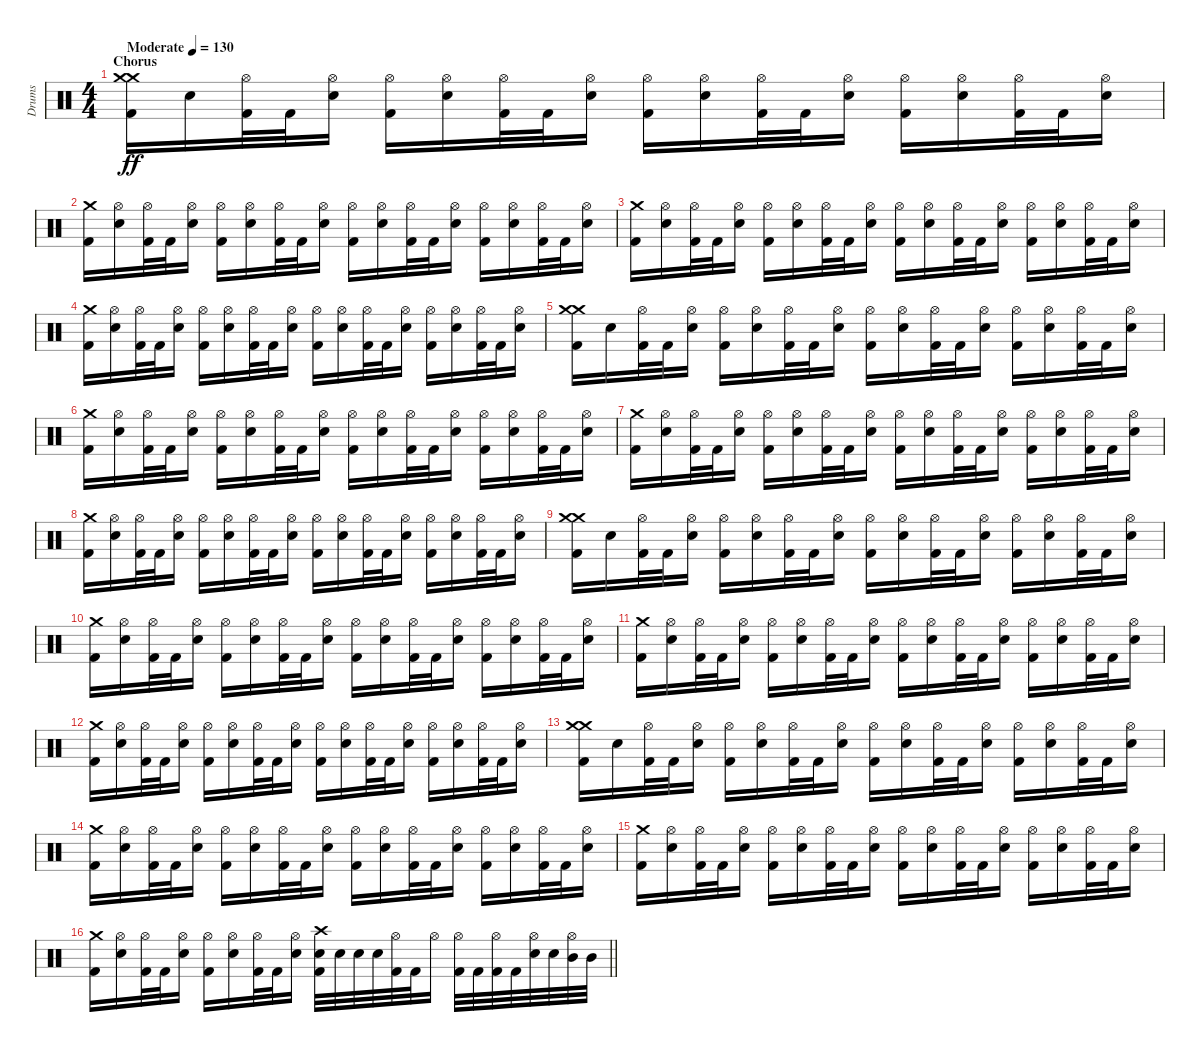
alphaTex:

\track ("Drums" "Drums") {instrument percussion}
\staff {score}
\articulation defaults
\ts (4 4)
\section ("" "Chorus")
\tempo (130 "Moderate")
\clef neutral
\ks c
("Crash medium (hit)" "Crash medium (hit)" "Kick (hit) 2").16{dy ff} "Snare (hit) 2".16 ("Hi-Hat (open)" "Kick (hit) 2").32 "Kick (hit) 2".32 ("Hi-Hat (open)" "Snare (hit) 2").16 ("Hi-Hat (open)" "Kick (hit) 2").16 ("Hi-Hat (open)" "Snare (hit) 2").16 ("Hi-Hat (open)" "Kick (hit) 2").32 "Kick (hit) 2".32 ("Hi-Hat (open)" "Snare (hit) 2").16 ("Hi-Hat (open)" "Kick (hit) 2").16 ("Hi-Hat (open)" "Snare (hit) 2").16 ("Hi-Hat (open)" "Kick (hit) 2").32 "Kick (hit) 2".32 ("Hi-Hat (open)" "Snare (hit) 2").16 ("Hi-Hat (open)" "Kick (hit) 2").16 ("Hi-Hat (open)" "Snare (hit) 2").16 ("Hi-Hat (open)" "Kick (hit) 2").32 "Kick (hit) 2".32 ("Hi-Hat (open)" "Snare (hit) 2").16 |
("Crash medium (hit)" "Kick (hit) 2").16 ("Hi-Hat (open)" "Snare (hit) 2").16 ("Hi-Hat (open)" "Kick (hit) 2").32 "Kick (hit) 2".32 ("Hi-Hat (open)" "Snare (hit) 2").16 ("Hi-Hat (open)" "Kick (hit) 2").16 ("Hi-Hat (open)" "Snare (hit) 2").16 ("Hi-Hat (open)" "Kick (hit) 2").32 "Kick (hit) 2".32 ("Hi-Hat (open)" "Snare (hit) 2").16 ("Hi-Hat (open)" "Kick (hit) 2").16 ("Hi-Hat (open)" "Snare (hit) 2").16 ("Hi-Hat (open)" "Kick (hit) 2").32 "Kick (hit) 2".32 ("Hi-Hat (open)" "Snare (hit) 2").16 ("Hi-Hat (open)" "Kick (hit) 2").16 ("Hi-Hat (open)" "Snare (hit) 2").16 ("Hi-Hat (open)" "Kick (hit) 2").32 "Kick (hit) 2".32 ("Hi-Hat (open)" "Snare (hit) 2").16 |
("Crash medium (hit)" "Kick (hit) 2").16 ("Hi-Hat (open)" "Snare (hit) 2").16 ("Hi-Hat (open)" "Kick (hit) 2").32 "Kick (hit) 2".32 ("Hi-Hat (open)" "Snare (hit) 2").16 ("Hi-Hat (open)" "Kick (hit) 2").16 ("Hi-Hat (open)" "Snare (hit) 2").16 ("Hi-Hat (open)" "Kick (hit) 2").32 "Kick (hit) 2".32 ("Hi-Hat (open)" "Snare (hit) 2").16 ("Hi-Hat (open)" "Kick (hit) 2").16 ("Hi-Hat (open)" "Snare (hit) 2").16 ("Hi-Hat (open)" "Kick (hit) 2").32 "Kick (hit) 2".32 ("Hi-Hat (open)" "Snare (hit) 2").16 ("Hi-Hat (open)" "Kick (hit) 2").16 ("Hi-Hat (open)" "Snare (hit) 2").16 ("Hi-Hat (open)" "Kick (hit) 2").32 "Kick (hit) 2".32 ("Hi-Hat (open)" "Snare (hit) 2").16 |
("Crash medium (hit)" "Kick (hit) 2").16 ("Hi-Hat (open)" "Snare (hit) 2").16 ("Hi-Hat (open)" "Kick (hit) 2").32 "Kick (hit) 2".32 ("Hi-Hat (open)" "Snare (hit) 2").16 ("Hi-Hat (open)" "Kick (hit) 2").16 ("Hi-Hat (open)" "Snare (hit) 2").16 ("Hi-Hat (open)" "Kick (hit) 2").32 "Kick (hit) 2".32 ("Hi-Hat (open)" "Snare (hit) 2").16 ("Hi-Hat (open)" "Kick (hit) 2").16 ("Hi-Hat (open)" "Snare (hit) 2").16 ("Hi-Hat (open)" "Kick (hit) 2").32 "Kick (hit) 2".32 ("Hi-Hat (open)" "Snare (hit) 2").16 ("Hi-Hat (open)" "Kick (hit) 2").16 ("Hi-Hat (open)" "Snare (hit) 2").16 ("Hi-Hat (open)" "Kick (hit) 2").32 "Kick (hit) 2".32 ("Hi-Hat (open)" "Snare (hit) 2").16 |
("Crash medium (hit)" "Crash medium (hit)" "Kick (hit) 2").16 "Snare (hit) 2".16 ("Hi-Hat (open)" "Kick (hit) 2").32 "Kick (hit) 2".32 ("Hi-Hat (open)" "Snare (hit) 2").16 ("Hi-Hat (open)" "Kick (hit) 2").16 ("Hi-Hat (open)" "Snare (hit) 2").16 ("Hi-Hat (open)" "Kick (hit) 2").32 "Kick (hit) 2".32 ("Hi-Hat (open)" "Snare (hit) 2").16 ("Hi-Hat (open)" "Kick (hit) 2").16 ("Hi-Hat (open)" "Snare (hit) 2").16 ("Hi-Hat (open)" "Kick (hit) 2").32 "Kick (hit) 2".32 ("Hi-Hat (open)" "Snare (hit) 2").16 ("Hi-Hat (open)" "Kick (hit) 2").16 ("Hi-Hat (open)" "Snare (hit) 2").16 ("Hi-Hat (open)" "Kick (hit) 2").32 "Kick (hit) 2".32 ("Hi-Hat (open)" "Snare (hit) 2").16 |
("Crash medium (hit)" "Kick (hit) 2").16 ("Hi-Hat (open)" "Snare (hit) 2").16 ("Hi-Hat (open)" "Kick (hit) 2").32 "Kick (hit) 2".32 ("Hi-Hat (open)" "Snare (hit) 2").16 ("Hi-Hat (open)" "Kick (hit) 2").16 ("Hi-Hat (open)" "Snare (hit) 2").16 ("Hi-Hat (open)" "Kick (hit) 2").32 "Kick (hit) 2".32 ("Hi-Hat (open)" "Snare (hit) 2").16 ("Hi-Hat (open)" "Kick (hit) 2").16 ("Hi-Hat (open)" "Snare (hit) 2").16 ("Hi-Hat (open)" "Kick (hit) 2").32 "Kick (hit) 2".32 ("Hi-Hat (open)" "Snare (hit) 2").16 ("Hi-Hat (open)" "Kick (hit) 2").16 ("Hi-Hat (open)" "Snare (hit) 2").16 ("Hi-Hat (open)" "Kick (hit) 2").32 "Kick (hit) 2".32 ("Hi-Hat (open)" "Snare (hit) 2").16 |
("Crash medium (hit)" "Kick (hit) 2").16 ("Hi-Hat (open)" "Snare (hit) 2").16 ("Hi-Hat (open)" "Kick (hit) 2").32 "Kick (hit) 2".32 ("Hi-Hat (open)" "Snare (hit) 2").16 ("Hi-Hat (open)" "Kick (hit) 2").16 ("Hi-Hat (open)" "Snare (hit) 2").16 ("Hi-Hat (open)" "Kick (hit) 2").32 "Kick (hit) 2".32 ("Hi-Hat (open)" "Snare (hit) 2").16 ("Hi-Hat (open)" "Kick (hit) 2").16 ("Hi-Hat (open)" "Snare (hit) 2").16 ("Hi-Hat (open)" "Kick (hit) 2").32 "Kick (hit) 2".32 ("Hi-Hat (open)" "Snare (hit) 2").16 ("Hi-Hat (open)" "Kick (hit) 2").16 ("Hi-Hat (open)" "Snare (hit) 2").16 ("Hi-Hat (open)" "Kick (hit) 2").32 "Kick (hit) 2".32 ("Hi-Hat (open)" "Snare (hit) 2").16 |
("Crash medium (hit)" "Kick (hit) 2").16 ("Hi-Hat (open)" "Snare (hit) 2").16 ("Hi-Hat (open)" "Kick (hit) 2").32 "Kick (hit) 2".32 ("Hi-Hat (open)" "Snare (hit) 2").16 ("Hi-Hat (open)" "Kick (hit) 2").16 ("Hi-Hat (open)" "Snare (hit) 2").16 ("Hi-Hat (open)" "Kick (hit) 2").32 "Kick (hit) 2".32 ("Hi-Hat (open)" "Snare (hit) 2").16 ("Hi-Hat (open)" "Kick (hit) 2").16 ("Hi-Hat (open)" "Snare (hit) 2").16 ("Hi-Hat (open)" "Kick (hit) 2").32 "Kick (hit) 2".32 ("Hi-Hat (open)" "Snare (hit) 2").16 ("Hi-Hat (open)" "Kick (hit) 2").16 ("Hi-Hat (open)" "Snare (hit) 2").16 ("Hi-Hat (open)" "Kick (hit) 2").32 "Kick (hit) 2".32 ("Hi-Hat (open)" "Snare (hit) 2").16 |
("Crash medium (hit)" "Crash medium (hit)" "Kick (hit) 2").16 "Snare (hit) 2".16 ("Hi-Hat (open)" "Kick (hit) 2").32 "Kick (hit) 2".32 ("Hi-Hat (open)" "Snare (hit) 2").16 ("Hi-Hat (open)" "Kick (hit) 2").16 ("Hi-Hat (open)" "Snare (hit) 2").16 ("Hi-Hat (open)" "Kick (hit) 2").32 "Kick (hit) 2".32 ("Hi-Hat (open)" "Snare (hit) 2").16 ("Hi-Hat (open)" "Kick (hit) 2").16 ("Hi-Hat (open)" "Snare (hit) 2").16 ("Hi-Hat (open)" "Kick (hit) 2").32 "Kick (hit) 2".32 ("Hi-Hat (open)" "Snare (hit) 2").16 ("Hi-Hat (open)" "Kick (hit) 2").16 ("Hi-Hat (open)" "Snare (hit) 2").16 ("Hi-Hat (open)" "Kick (hit) 2").32 "Kick (hit) 2".32 ("Hi-Hat (open)" "Snare (hit) 2").16 |
("Crash medium (hit)" "Kick (hit) 2").16 ("Hi-Hat (open)" "Snare (hit) 2").16 ("Hi-Hat (open)" "Kick (hit) 2").32 "Kick (hit) 2".32 ("Hi-Hat (open)" "Snare (hit) 2").16 ("Hi-Hat (open)" "Kick (hit) 2").16 ("Hi-Hat (open)" "Snare (hit) 2").16 ("Hi-Hat (open)" "Kick (hit) 2").32 "Kick (hit) 2".32 ("Hi-Hat (open)" "Snare (hit) 2").16 ("Hi-Hat (open)" "Kick (hit) 2").16 ("Hi-Hat (open)" "Snare (hit) 2").16 ("Hi-Hat (open)" "Kick (hit) 2").32 "Kick (hit) 2".32 ("Hi-Hat (open)" "Snare (hit) 2").16 ("Hi-Hat (open)" "Kick (hit) 2").16 ("Hi-Hat (open)" "Snare (hit) 2").16 ("Hi-Hat (open)" "Kick (hit) 2").32 "Kick (hit) 2".32 ("Hi-Hat (open)" "Snare (hit) 2").16 |
("Crash medium (hit)" "Kick (hit) 2").16 ("Hi-Hat (open)" "Snare (hit) 2").16 ("Hi-Hat (open)" "Kick (hit) 2").32 "Kick (hit) 2".32 ("Hi-Hat (open)" "Snare (hit) 2").16 ("Hi-Hat (open)" "Kick (hit) 2").16 ("Hi-Hat (open)" "Snare (hit) 2").16 ("Hi-Hat (open)" "Kick (hit) 2").32 "Kick (hit) 2".32 ("Hi-Hat (open)" "Snare (hit) 2").16 ("Hi-Hat (open)" "Kick (hit) 2").16 ("Hi-Hat (open)" "Snare (hit) 2").16 ("Hi-Hat (open)" "Kick (hit) 2").32 "Kick (hit) 2".32 ("Hi-Hat (open)" "Snare (hit) 2").16 ("Hi-Hat (open)" "Kick (hit) 2").16 ("Hi-Hat (open)" "Snare (hit) 2").16 ("Hi-Hat (open)" "Kick (hit) 2").32 "Kick (hit) 2".32 ("Hi-Hat (open)" "Snare (hit) 2").16 |
("Crash medium (hit)" "Kick (hit) 2").16 ("Hi-Hat (open)" "Snare (hit) 2").16 ("Hi-Hat (open)" "Kick (hit) 2").32 "Kick (hit) 2".32 ("Hi-Hat (open)" "Snare (hit) 2").16 ("Hi-Hat (open)" "Kick (hit) 2").16 ("Hi-Hat (open)" "Snare (hit) 2").16 ("Hi-Hat (open)" "Kick (hit) 2").32 "Kick (hit) 2".32 ("Hi-Hat (open)" "Snare (hit) 2").16 ("Hi-Hat (open)" "Kick (hit) 2").16 ("Hi-Hat (open)" "Snare (hit) 2").16 ("Hi-Hat (open)" "Kick (hit) 2").32 "Kick (hit) 2".32 ("Hi-Hat (open)" "Snare (hit) 2").16 ("Hi-Hat (open)" "Kick (hit) 2").16 ("Hi-Hat (open)" "Snare (hit) 2").16 ("Hi-Hat (open)" "Kick (hit) 2").32 "Kick (hit) 2".32 ("Hi-Hat (open)" "Snare (hit) 2").16 |
("Crash medium (hit)" "Crash medium (hit)" "Kick (hit) 2").16 "Snare (hit) 2".16 ("Hi-Hat (open)" "Kick (hit) 2").32 "Kick (hit) 2".32 ("Hi-Hat (open)" "Snare (hit) 2").16 ("Hi-Hat (open)" "Kick (hit) 2").16 ("Hi-Hat (open)" "Snare (hit) 2").16 ("Hi-Hat (open)" "Kick (hit) 2").32 "Kick (hit) 2".32 ("Hi-Hat (open)" "Snare (hit) 2").16 ("Hi-Hat (open)" "Kick (hit) 2").16 ("Hi-Hat (open)" "Snare (hit) 2").16 ("Hi-Hat (open)" "Kick (hit) 2").32 "Kick (hit) 2".32 ("Hi-Hat (open)" "Snare (hit) 2").16 ("Hi-Hat (open)" "Kick (hit) 2").16 ("Hi-Hat (open)" "Snare (hit) 2").16 ("Hi-Hat (open)" "Kick (hit) 2").32 "Kick (hit) 2".32 ("Hi-Hat (open)" "Snare (hit) 2").16 |
("Crash medium (hit)" "Kick (hit) 2").16 ("Hi-Hat (open)" "Snare (hit) 2").16 ("Hi-Hat (open)" "Kick (hit) 2").32 "Kick (hit) 2".32 ("Hi-Hat (open)" "Snare (hit) 2").16 ("Hi-Hat (open)" "Kick (hit) 2").16 ("Hi-Hat (open)" "Snare (hit) 2").16 ("Hi-Hat (open)" "Kick (hit) 2").32 "Kick (hit) 2".32 ("Hi-Hat (open)" "Snare (hit) 2").16 ("Hi-Hat (open)" "Kick (hit) 2").16 ("Hi-Hat (open)" "Snare (hit) 2").16 ("Hi-Hat (open)" "Kick (hit) 2").32 "Kick (hit) 2".32 ("Hi-Hat (open)" "Snare (hit) 2").16 ("Hi-Hat (open)" "Kick (hit) 2").16 ("Hi-Hat (open)" "Snare (hit) 2").16 ("Hi-Hat (open)" "Kick (hit) 2").32 "Kick (hit) 2".32 ("Hi-Hat (open)" "Snare (hit) 2").16 |
("Crash medium (hit)" "Kick (hit) 2").16 ("Hi-Hat (open)" "Snare (hit) 2").16 ("Hi-Hat (open)" "Kick (hit) 2").32 "Kick (hit) 2".32 ("Hi-Hat (open)" "Snare (hit) 2").16 ("Hi-Hat (open)" "Kick (hit) 2").16 ("Hi-Hat (open)" "Snare (hit) 2").16 ("Hi-Hat (open)" "Kick (hit) 2").32 "Kick (hit) 2".32 ("Hi-Hat (open)" "Snare (hit) 2").16 ("Hi-Hat (open)" "Kick (hit) 2").16 ("Hi-Hat (open)" "Snare (hit) 2").16 ("Hi-Hat (open)" "Kick (hit) 2").32 "Kick (hit) 2".32 ("Hi-Hat (open)" "Snare (hit) 2").16 ("Hi-Hat (open)" "Kick (hit) 2").16 ("Hi-Hat (open)" "Snare (hit) 2").16 ("Hi-Hat (open)" "Kick (hit) 2").32 "Kick (hit) 2".32 ("Hi-Hat (open)" "Snare (hit) 2").16 |
\barLineRight lightlight
("Crash medium (hit)" "Kick (hit) 2").16 ("Hi-Hat (open)" "Snare (hit) 2").16 ("Hi-Hat (open)" "Kick (hit) 2").32 "Kick (hit) 2".32 ("Hi-Hat (open)" "Snare (hit) 2").16 ("Hi-Hat (open)" "Kick (hit) 2").16 ("Hi-Hat (open)" "Snare (hit) 2").16 ("Hi-Hat (open)" "Kick (hit) 2").32 "Kick (hit) 2".32 ("Hi-Hat (open)" "Snare (hit) 2").16 ("Crash high (hit)" "Kick (hit) 2" "Snare (hit) 2").32 "Snare (hit) 2".32 "Snare (hit) 2".32 "Snare (hit) 2".32 ("Hi-Hat (open)" "Kick (hit) 2").32 "Kick (hit) 2".32 "Hi-Hat (open)".16 ("Hi-Hat (open)" "Kick (hit) 2").32 "Kick (hit) 2".32 ("Hi-Hat (open)" "Kick (hit) 2").32 "Kick (hit) 2".32 ("Hi-Hat (open)" "Snare (hit) 2").32 "Snare (hit) 2".32 ("Hi-Hat (open)" "Mid Tom (hit)").32 "Mid Tom (hit)".32
